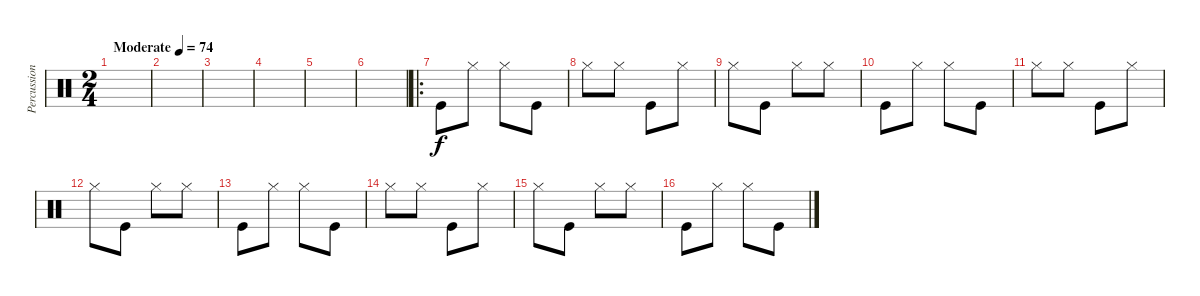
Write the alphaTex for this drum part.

\track ("Percussion" "Percussion") {instrument percussion}
\staff {score}
\articulation defaults
\ts (2 4)
\tempo (74 "Moderate")
\clef neutral
\ks c
|
|
|
|
|
|
\ro "Kick (hit)".8 "Hi-Hat (closed)".8 "Hi-Hat (closed)".8 "Kick (hit)".8
|
"Hi-Hat (closed)".8 "Hi-Hat (closed)".8 "Kick (hit)".8 "Hi-Hat (closed)".8 |
"Hi-Hat (closed)".8 "Kick (hit)".8 "Hi-Hat (closed)".8 "Hi-Hat (closed)".8 |
"Kick (hit)".8 "Hi-Hat (closed)".8 "Hi-Hat (closed)".8 "Kick (hit)".8 |
"Hi-Hat (closed)".8 "Hi-Hat (closed)".8 "Kick (hit)".8 "Hi-Hat (closed)".8 |
"Hi-Hat (closed)".8 "Kick (hit)".8 "Hi-Hat (closed)".8 "Hi-Hat (closed)".8 |
"Kick (hit)".8 "Hi-Hat (closed)".8 "Hi-Hat (closed)".8 "Kick (hit)".8 |
"Hi-Hat (closed)".8 "Hi-Hat (closed)".8 "Kick (hit)".8 "Hi-Hat (closed)".8 |
"Hi-Hat (closed)".8 "Kick (hit)".8 "Hi-Hat (closed)".8 "Hi-Hat (closed)".8 |
"Kick (hit)".8 "Hi-Hat (closed)".8 "Hi-Hat (closed)".8 "Kick (hit)".8
